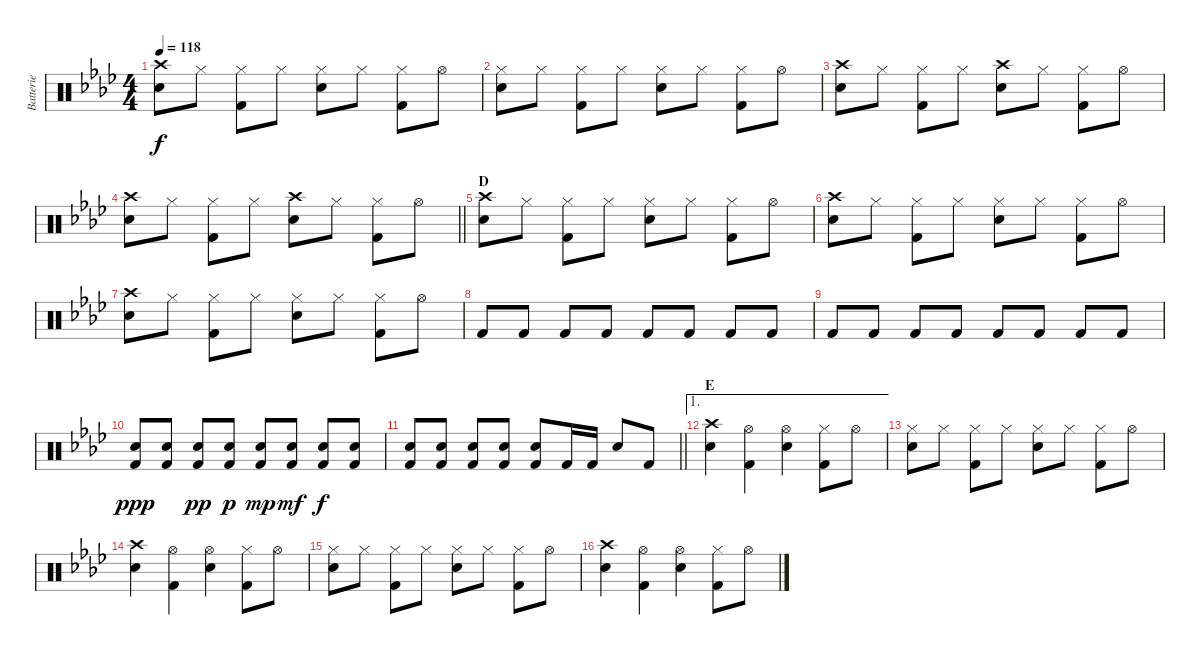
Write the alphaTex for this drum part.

\track ("Batterie" "Batterie") {instrument percussion}
\staff {score}
\articulation defaults
\ts (4 4)
\tempo 118
\clef neutral
\ks ab
("Crash high (hit)" "Snare (hit) 2").8{dy f} "Hi-Hat (closed)".8 ("Hi-Hat (closed)" "Kick (hit) 2").8 "Hi-Hat (closed)".8 ("Hi-Hat (closed)" "Snare (hit) 2").8 "Hi-Hat (closed)".8 ("Hi-Hat (closed)" "Kick (hit) 2").8 "Hi-Hat (open)".8 |
("Hi-Hat (closed)" "Snare (hit) 2").8 "Hi-Hat (closed)".8 ("Hi-Hat (closed)" "Kick (hit) 2").8 "Hi-Hat (closed)".8 ("Hi-Hat (closed)" "Snare (hit) 2").8 "Hi-Hat (closed)".8 ("Hi-Hat (closed)" "Kick (hit) 2").8 "Hi-Hat (open)".8 |
("Crash high (hit)" "Snare (hit) 2").8 "Hi-Hat (closed)".8 ("Hi-Hat (closed)" "Kick (hit) 2").8 "Hi-Hat (closed)".8 ("Crash high (hit)" "Snare (hit) 2").8 "Hi-Hat (closed)".8 ("Hi-Hat (closed)" "Kick (hit) 2").8 "Hi-Hat (open)".8 |
\barLineRight lightlight
("Crash high (hit)" "Snare (hit) 2").8 "Hi-Hat (closed)".8 ("Hi-Hat (closed)" "Kick (hit) 2").8 "Hi-Hat (closed)".8 ("Crash high (hit)" "Snare (hit) 2").8 "Hi-Hat (closed)".8 ("Hi-Hat (closed)" "Kick (hit) 2").8 "Hi-Hat (open)".8 |
\section ("" "D")
("Crash high (hit)" "Snare (hit) 2").8 "Hi-Hat (closed)".8 ("Hi-Hat (closed)" "Kick (hit) 2").8 "Hi-Hat (closed)".8 ("Hi-Hat (closed)" "Snare (hit) 2").8 "Hi-Hat (closed)".8 ("Hi-Hat (closed)" "Kick (hit) 2").8 "Hi-Hat (open)".8 |
("Crash high (hit)" "Snare (hit) 2").8 "Hi-Hat (closed)".8 ("Hi-Hat (closed)" "Kick (hit) 2").8 "Hi-Hat (closed)".8 ("Hi-Hat (closed)" "Snare (hit) 2").8 "Hi-Hat (closed)".8 ("Hi-Hat (closed)" "Kick (hit) 2").8 "Hi-Hat (open)".8 |
("Crash high (hit)" "Snare (hit) 2").8 "Hi-Hat (closed)".8 ("Hi-Hat (closed)" "Kick (hit) 2").8 "Hi-Hat (closed)".8 ("Hi-Hat (closed)" "Snare (hit) 2").8 "Hi-Hat (closed)".8 ("Hi-Hat (closed)" "Kick (hit) 2").8 "Hi-Hat (open)".8 |
"Kick (hit) 2".8 "Kick (hit) 2".8 "Kick (hit) 2".8 "Kick (hit) 2".8 "Kick (hit) 2".8 "Kick (hit) 2".8 "Kick (hit) 2".8 "Kick (hit) 2".8 |
"Kick (hit) 2".8 "Kick (hit) 2".8 "Kick (hit) 2".8 "Kick (hit) 2".8 "Kick (hit) 2".8 "Kick (hit) 2".8 "Kick (hit) 2".8 "Kick (hit) 2".8 |
("Snare (hit) 2" "Kick (hit) 2").8{dy ppp} ("Snare (hit) 2" "Kick (hit) 2").8 ("Snare (hit) 2" "Kick (hit) 2").8{dy pp} ("Snare (hit) 2" "Kick (hit) 2").8{dy p} ("Snare (hit) 2" "Kick (hit) 2").8{dy mp} ("Snare (hit) 2" "Kick (hit) 2").8{dy mf} ("Snare (hit) 2" "Kick (hit) 2").8{dy f} ("Snare (hit) 2" "Kick (hit) 2").8 |
\barLineRight lightlight
("Snare (hit) 2" "Kick (hit) 2").8 ("Snare (hit) 2" "Kick (hit) 2").8 ("Snare (hit) 2" "Kick (hit) 2").8 ("Snare (hit) 2" "Kick (hit) 2").8 ("Snare (hit) 2" "Kick (hit) 2").8 "Kick (hit) 2".16 "Kick (hit) 2".16 "Snare (hit) 2".8 "Kick (hit) 2".8 |
\ae 1
\section ("" "E")
("Crash high (hit)" "Snare (hit) 2").4 ("Hi-Hat (open)" "Kick (hit) 2").4 ("Hi-Hat (open)" "Snare (hit) 2").4 ("Hi-Hat (closed)" "Kick (hit) 2").8 "Hi-Hat (open)".8 |
("Hi-Hat (closed)" "Snare (hit) 2").8 "Hi-Hat (closed)".8 ("Hi-Hat (closed)" "Kick (hit) 2").8 "Hi-Hat (closed)".8 ("Hi-Hat (closed)" "Snare (hit) 2").8 "Hi-Hat (closed)".8 ("Hi-Hat (closed)" "Kick (hit) 2").8 "Hi-Hat (open)".8 |
("Crash high (hit)" "Snare (hit) 2").4 ("Hi-Hat (open)" "Kick (hit) 2").4 ("Hi-Hat (open)" "Snare (hit) 2").4 ("Hi-Hat (closed)" "Kick (hit) 2").8 "Hi-Hat (open)".8 |
("Hi-Hat (closed)" "Snare (hit) 2").8 "Hi-Hat (closed)".8 ("Hi-Hat (closed)" "Kick (hit) 2").8 "Hi-Hat (closed)".8 ("Hi-Hat (closed)" "Snare (hit) 2").8 "Hi-Hat (closed)".8 ("Hi-Hat (closed)" "Kick (hit) 2").8 "Hi-Hat (open)".8 |
("Crash high (hit)" "Snare (hit) 2").4 ("Hi-Hat (open)" "Kick (hit) 2").4 ("Hi-Hat (open)" "Snare (hit) 2").4 ("Hi-Hat (closed)" "Kick (hit) 2").8 "Hi-Hat (open)".8
